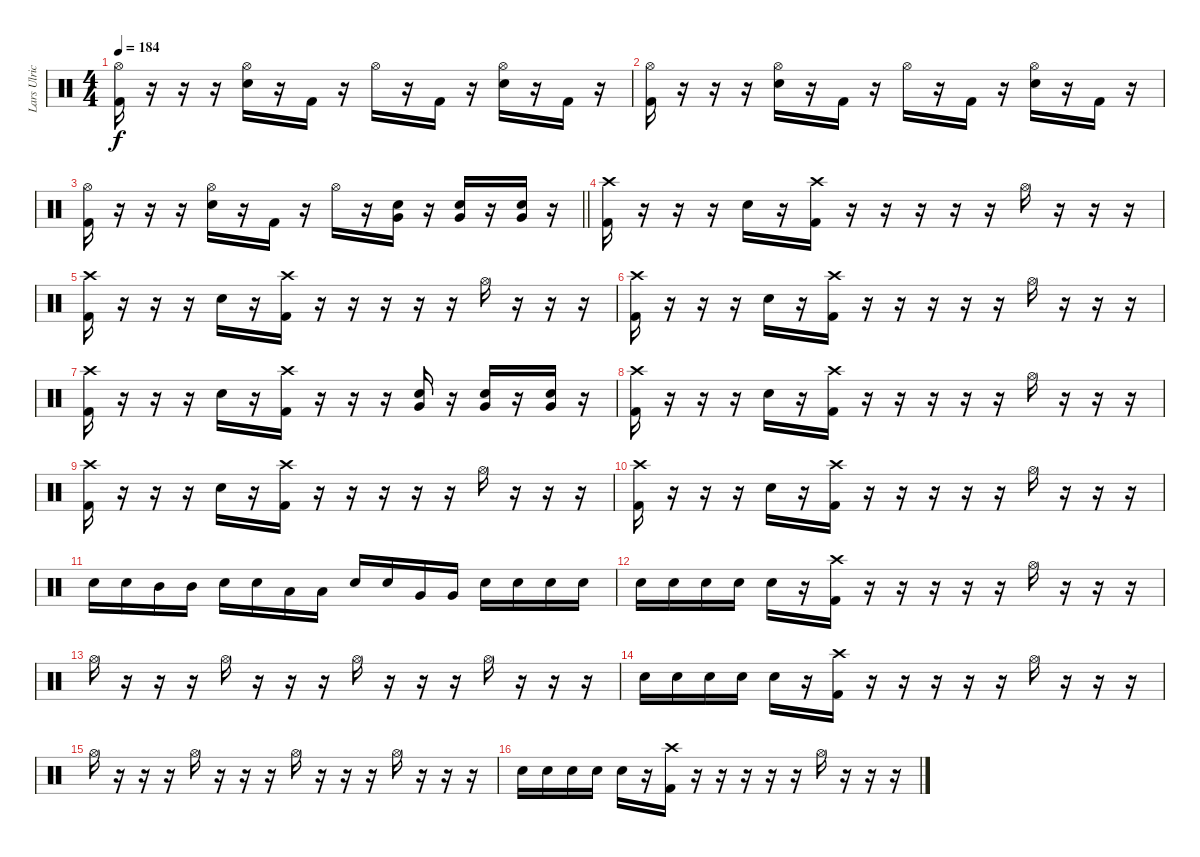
\track ("Lars Ulrich" "Lars Ulric") {instrument percussion}
\staff {score}
\articulation defaults
\ts (4 4)
\tempo 184
\clef neutral
\ks c
("Hi-Hat (open)" "Kick (hit) 2").16{dy f} r.16 r.16 r.16 ("Electric Snare (hit)" "Hi-Hat (open)").16 r.16 "Kick (hit) 2".16 r.16 "Hi-Hat (open)".16 r.16 "Kick (hit) 2".16 r.16 ("Electric Snare (hit)" "Hi-Hat (open)").16 r.16 "Kick (hit) 2".16 r.16 |
("Hi-Hat (open)" "Kick (hit) 2").16 r.16 r.16 r.16 ("Electric Snare (hit)" "Hi-Hat (open)").16 r.16 "Kick (hit) 2".16 r.16 "Hi-Hat (open)".16 r.16 "Kick (hit) 2".16 r.16 ("Electric Snare (hit)" "Hi-Hat (open)").16 r.16 "Kick (hit) 2".16 r.16 |
\barLineRight lightlight
("Hi-Hat (open)" "Kick (hit) 2").16 r.16 r.16 r.16 ("Electric Snare (hit)" "Hi-Hat (open)").16 r.16 "Kick (hit) 2".16 r.16 "Hi-Hat (open)".16 r.16 ("Electric Snare (hit)" "Very Low Tom (hit)").16 r.16 ("Electric Snare (hit)" "Very Low Tom (hit)").16 r.16 ("Electric Snare (hit)" "Very Low Tom (hit)").16 r.16 |
\section ("" "")
("Crash high (hit)" "Kick (hit) 2").16 r.16 r.16 r.16 "Electric Snare (hit)".16 r.16 ("Crash high (hit)" "Kick (hit) 2").16 r.16 r.16 r.16 r.16 r.16 "Hi-Hat (open)".16 r.16 r.16 r.16 |
("Crash high (hit)" "Kick (hit) 2").16 r.16 r.16 r.16 "Electric Snare (hit)".16 r.16 ("Crash high (hit)" "Kick (hit) 2").16 r.16 r.16 r.16 r.16 r.16 "Hi-Hat (open)".16 r.16 r.16 r.16 |
("Crash high (hit)" "Kick (hit) 2").16 r.16 r.16 r.16 "Electric Snare (hit)".16 r.16 ("Crash high (hit)" "Kick (hit) 2").16 r.16 r.16 r.16 r.16 r.16 "Hi-Hat (open)".16 r.16 r.16 r.16 |
("Crash high (hit)" "Kick (hit) 2").16 r.16 r.16 r.16 "Electric Snare (hit)".16 r.16 ("Crash high (hit)" "Kick (hit) 2").16 r.16 r.16 r.16 ("Electric Snare (hit)" "Very Low Tom (hit)").16 r.16 ("Electric Snare (hit)" "Very Low Tom (hit)").16 r.16 ("Electric Snare (hit)" "Very Low Tom (hit)").16 r.16 |
("Crash high (hit)" "Kick (hit) 2").16 r.16 r.16 r.16 "Electric Snare (hit)".16 r.16 ("Crash high (hit)" "Kick (hit) 2").16 r.16 r.16 r.16 r.16 r.16 "Hi-Hat (open)".16 r.16 r.16 r.16 |
("Crash high (hit)" "Kick (hit) 2").16 r.16 r.16 r.16 "Electric Snare (hit)".16 r.16 ("Crash high (hit)" "Kick (hit) 2").16 r.16 r.16 r.16 r.16 r.16 "Hi-Hat (open)".16 r.16 r.16 r.16 |
("Crash high (hit)" "Kick (hit) 2").16 r.16 r.16 r.16 "Electric Snare (hit)".16 r.16 ("Crash high (hit)" "Kick (hit) 2").16 r.16 r.16 r.16 r.16 r.16 "Hi-Hat (open)".16 r.16 r.16 r.16 |
"Electric Snare (hit)".16 "Electric Snare (hit)".16 "Mid Tom (hit)".16 "Mid Tom (hit)".16 "Electric Snare (hit)".16 "Electric Snare (hit)".16 "Low Tom (hit)".16 "Low Tom (hit)".16 "Electric Snare (hit)".16 "Electric Snare (hit)".16 "Very Low Tom (hit)".16 "Very Low Tom (hit)".16 "Electric Snare (hit)".16 "Electric Snare (hit)".16 "Electric Snare (hit)".16 "Electric Snare (hit)".16 |
"Electric Snare (hit)".16 "Electric Snare (hit)".16 "Electric Snare (hit)".16 "Electric Snare (hit)".16 "Electric Snare (hit)".16 r.16 ("Crash high (hit)" "Kick (hit) 2").16 r.16 r.16 r.16 r.16 r.16 "Hi-Hat (open)".16 r.16 r.16 r.16 |
"Hi-Hat (open)".16 r.16 r.16 r.16 "Hi-Hat (open)".16 r.16 r.16 r.16 "Hi-Hat (open)".16 r.16 r.16 r.16 "Hi-Hat (open)".16 r.16 r.16 r.16 |
"Electric Snare (hit)".16 "Electric Snare (hit)".16 "Electric Snare (hit)".16 "Electric Snare (hit)".16 "Electric Snare (hit)".16 r.16 ("Crash high (hit)" "Kick (hit) 2").16 r.16 r.16 r.16 r.16 r.16 "Hi-Hat (open)".16 r.16 r.16 r.16 |
"Hi-Hat (open)".16 r.16 r.16 r.16 "Hi-Hat (open)".16 r.16 r.16 r.16 "Hi-Hat (open)".16 r.16 r.16 r.16 "Hi-Hat (open)".16 r.16 r.16 r.16 |
"Electric Snare (hit)".16 "Electric Snare (hit)".16 "Electric Snare (hit)".16 "Electric Snare (hit)".16 "Electric Snare (hit)".16 r.16 ("Crash high (hit)" "Kick (hit) 2").16 r.16 r.16 r.16 r.16 r.16 "Hi-Hat (open)".16 r.16 r.16 r.16
